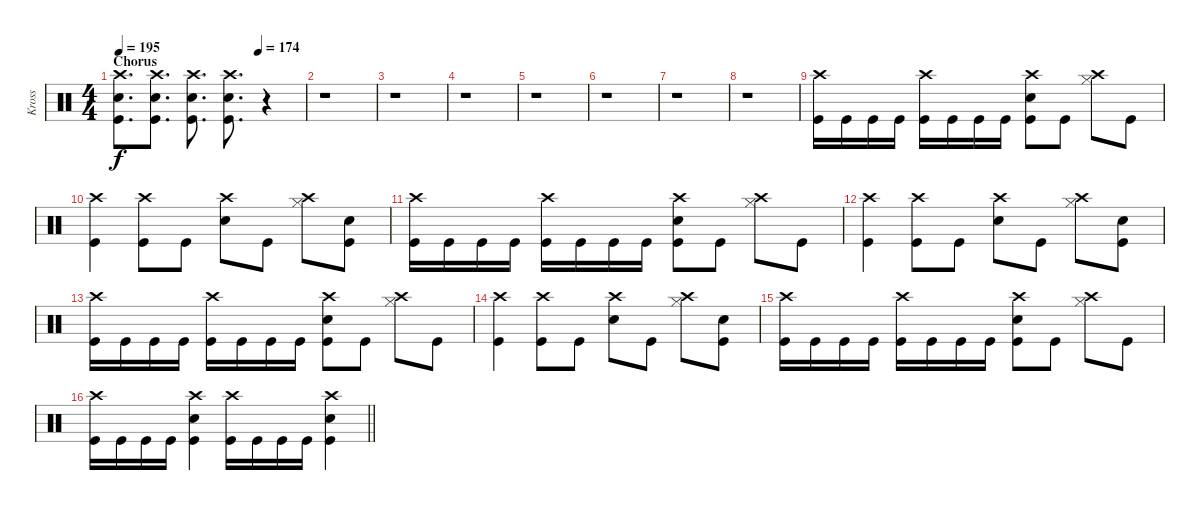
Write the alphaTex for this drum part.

\track ("Kross" "Kross") {instrument percussion}
\staff {score}
\articulation defaults
\ts (4 4)
\section ("" "Chorus")
\tempo 195
\tempo (174 0.75)
\clef neutral
\ks c
("Crash high (hit)" "Snare (hit) 2" "Kick (hit)").8{d dy f} ("Crash high (hit)" "Snare (hit) 2" "Kick (hit)").8{d} ("Crash high (hit)" "Snare (hit) 2" "Kick (hit)").8{d} ("Crash high (hit)" "Snare (hit) 2" "Kick (hit)").8{d} r.4 |
r.1 |
r.1 |
r.1 |
r.1 |
r.1 |
r.1 |
r.1 |
("Crash high (hit)" "Kick (hit)").16 "Kick (hit)".16 "Kick (hit)".16 "Kick (hit)".16 ("Crash high (hit)" "Kick (hit)").16 "Kick (hit)".16 "Kick (hit)".16 "Kick (hit)".16 ("Crash high (hit)" "Snare (hit) 2" "Kick (hit)").8 "Kick (hit)".8 ("Crash high (hit)" "Hi-Hat (closed)").8 "Kick (hit)".8 |
("Crash high (hit)" "Kick (hit)").4 ("Crash high (hit)" "Kick (hit)").8 "Kick (hit)".8 ("Crash high (hit)" "Snare (hit) 2").8 "Kick (hit)".8 ("Crash high (hit)" "Hi-Hat (closed)").8 ("Snare (hit) 2" "Kick (hit)").8 |
("Crash high (hit)" "Kick (hit)").16 "Kick (hit)".16 "Kick (hit)".16 "Kick (hit)".16 ("Crash high (hit)" "Kick (hit)").16 "Kick (hit)".16 "Kick (hit)".16 "Kick (hit)".16 ("Crash high (hit)" "Snare (hit) 2" "Kick (hit)").8 "Kick (hit)".8 ("Crash high (hit)" "Hi-Hat (closed)").8 "Kick (hit)".8 |
("Crash high (hit)" "Kick (hit)").4 ("Crash high (hit)" "Kick (hit)").8 "Kick (hit)".8 ("Crash high (hit)" "Snare (hit) 2").8 "Kick (hit)".8 ("Crash high (hit)" "Hi-Hat (closed)").8 ("Snare (hit) 2" "Kick (hit)").8 |
("Crash high (hit)" "Kick (hit)").16 "Kick (hit)".16 "Kick (hit)".16 "Kick (hit)".16 ("Crash high (hit)" "Kick (hit)").16 "Kick (hit)".16 "Kick (hit)".16 "Kick (hit)".16 ("Crash high (hit)" "Snare (hit) 2" "Kick (hit)").8 "Kick (hit)".8 ("Crash high (hit)" "Hi-Hat (closed)").8 "Kick (hit)".8 |
("Crash high (hit)" "Kick (hit)").4 ("Crash high (hit)" "Kick (hit)").8 "Kick (hit)".8 ("Crash high (hit)" "Snare (hit) 2").8 "Kick (hit)".8 ("Crash high (hit)" "Hi-Hat (closed)").8 ("Snare (hit) 2" "Kick (hit)").8 |
("Crash high (hit)" "Kick (hit)").16 "Kick (hit)".16 "Kick (hit)".16 "Kick (hit)".16 ("Crash high (hit)" "Kick (hit)").16 "Kick (hit)".16 "Kick (hit)".16 "Kick (hit)".16 ("Crash high (hit)" "Snare (hit) 2" "Kick (hit)").8 "Kick (hit)".8 ("Crash high (hit)" "Hi-Hat (closed)").8 "Kick (hit)".8 |
\barLineRight lightlight
("Crash high (hit)" "Kick (hit)").16 "Kick (hit)".16 "Kick (hit)".16 "Kick (hit)".16 ("Crash high (hit)" "Snare (hit) 2" "Kick (hit)").4 ("Crash high (hit)" "Kick (hit)").16 "Kick (hit)".16 "Kick (hit)".16 "Kick (hit)".16 ("Crash high (hit)" "Snare (hit) 2" "Kick (hit)").4
